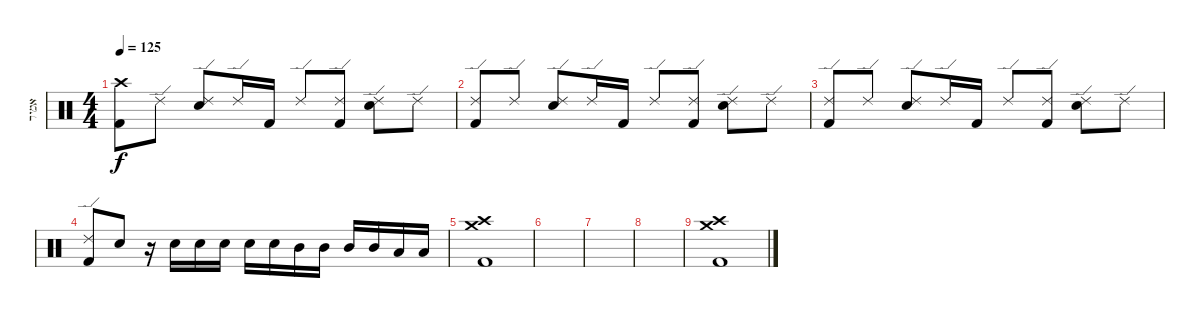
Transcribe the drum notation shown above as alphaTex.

\track ("אמיר" "אמיר") {instrument percussion}
\staff {score}
\articulation defaults
\ts (4 4)
\tempo 125
\clef neutral
\ks c
("Crash high (hit)" "Kick (hit) 2").8{dy f} "Ride (edge) 2".8 ("Ride (edge) 2" "Snare (hit) 2").8 "Ride (edge) 2".16 "Kick (hit) 2".16 "Ride (edge) 2".8 ("Ride (edge) 2" "Kick (hit) 2").8 ("Ride (edge) 2" "Snare (hit) 2").8 "Ride (edge) 2".8 |
("Ride (edge) 2" "Kick (hit) 2").8 "Ride (edge) 2".8 ("Ride (edge) 2" "Snare (hit) 2").8 "Ride (edge) 2".16 "Kick (hit) 2".16 "Ride (edge) 2".8 ("Ride (edge) 2" "Kick (hit) 2").8 ("Ride (edge) 2" "Snare (hit) 2").8 "Ride (edge) 2".8 |
("Ride (edge) 2" "Kick (hit) 2").8 "Ride (edge) 2".8 ("Ride (edge) 2" "Snare (hit) 2").8 "Ride (edge) 2".16 "Kick (hit) 2".16 "Ride (edge) 2".8 ("Ride (edge) 2" "Kick (hit) 2").8 ("Ride (edge) 2" "Snare (hit) 2").8 "Ride (edge) 2".8 |
("Ride (edge) 2" "Kick (hit) 2").8 "Snare (hit) 2".8 r.16 "Snare (hit) 2".16 "Snare (hit) 2".16 "Snare (hit) 2".16 "Snare (hit) 2".16 "Snare (hit) 2".16 "Mid Tom (hit)".16 "Mid Tom (hit)".16 "Mid Tom (hit)".16 "Mid Tom (hit)".16 "Low Floor Tom (hit)".16 "Low Floor Tom (hit)".16 |
("Crash medium (hit)" "Crash high (hit)" "Kick (hit) 2").1 |
|
|
|
("Crash medium (hit)" "Crash high (hit)" "Kick (hit) 2").1
